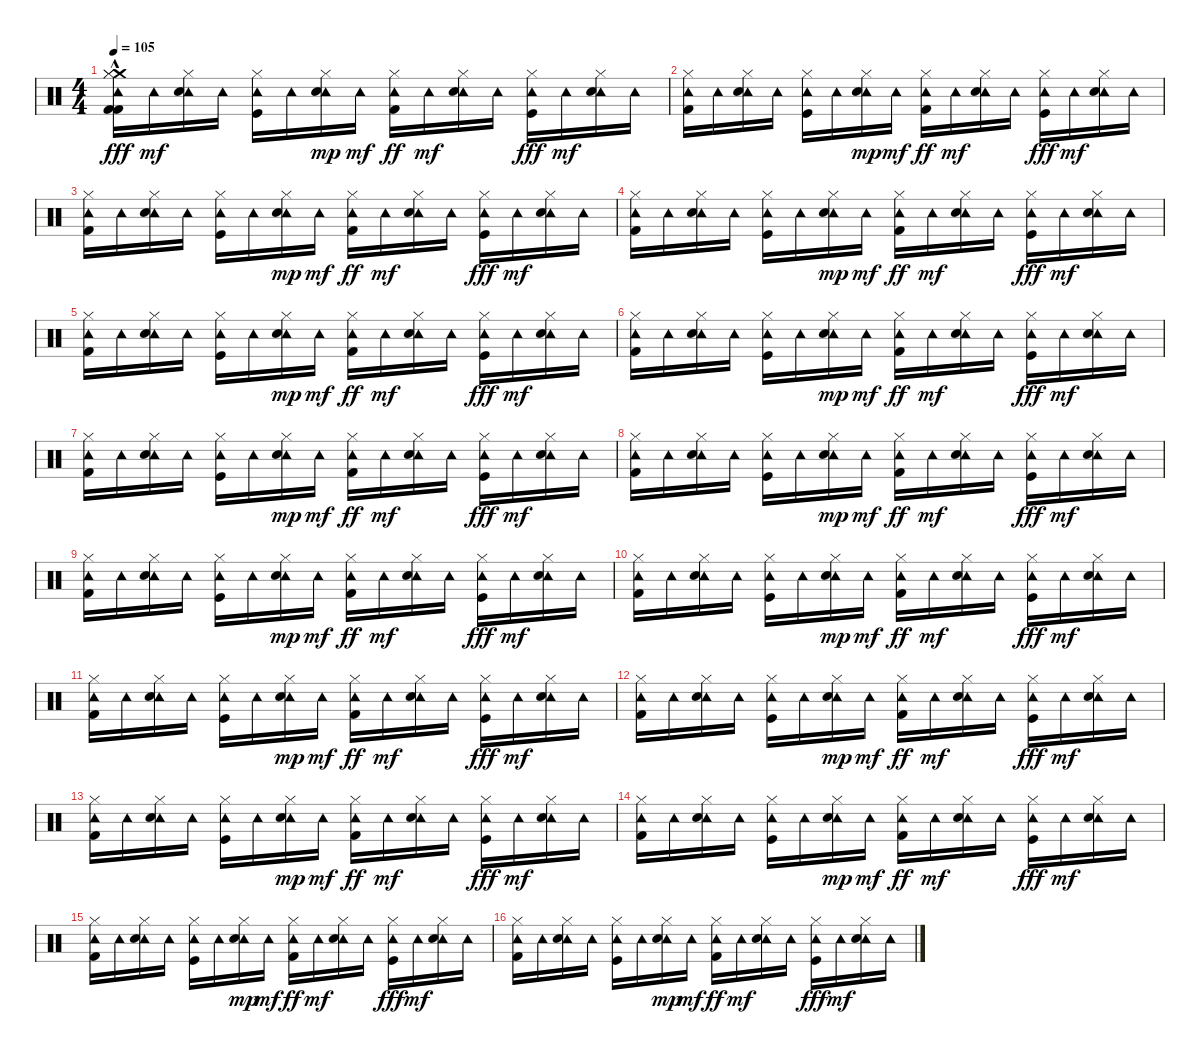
\track "" {instrument percussion}
\staff {score}
\articulation defaults
\ts (4 4)
\tempo 105
\clef neutral
\ks c
("Crash medium (hit)" "Kick (hit) 2" "Hi-Hat (closed)" "Tambourine (hit)" "Kick (hit) 2"{hac} "Hi-Hat (closed)").16{dy fff} "Tambourine (hit)".16{dy mf} ("Tambourine (hit)" "Hi-Hat (closed)" "Snare (hit) 2").16 "Tambourine (hit)".16 ("Kick (hit)" "Hi-Hat (closed)" "Tambourine (hit)").16 "Tambourine (hit)".16 ("Tambourine (hit)" "Hi-Hat (closed)" "Snare (hit) 2").16{dy mp} "Tambourine (hit)".16{dy mf} ("Tambourine (hit)" "Hi-Hat (closed)" "Kick (hit) 2").16{dy ff} "Tambourine (hit)".16{dy mf} ("Tambourine (hit)" "Hi-Hat (closed)" "Snare (hit) 2").16 "Tambourine (hit)".16 ("Tambourine (hit)" "Kick (hit)" "Hi-Hat (closed)").16{dy fff} "Tambourine (hit)".16{dy mf} ("Hi-Hat (closed)" "Tambourine (hit)" "Snare (hit) 2").16 "Tambourine (hit)".16 |
("Kick (hit) 2" "Hi-Hat (closed)" "Tambourine (hit)").16 "Tambourine (hit)".16 ("Hi-Hat (closed)" "Tambourine (hit)" "Snare (hit) 2").16 "Tambourine (hit)".16 ("Kick (hit)" "Hi-Hat (closed)" "Tambourine (hit)").16 "Tambourine (hit)".16 ("Tambourine (hit)" "Hi-Hat (closed)" "Snare (hit) 2").16{dy mp} "Tambourine (hit)".16{dy mf} ("Tambourine (hit)" "Hi-Hat (closed)" "Kick (hit) 2").16{dy ff} "Tambourine (hit)".16{dy mf} ("Tambourine (hit)" "Hi-Hat (closed)" "Snare (hit) 2").16 "Tambourine (hit)".16 ("Tambourine (hit)" "Kick (hit)" "Hi-Hat (closed)").16{dy fff} "Tambourine (hit)".16{dy mf} ("Tambourine (hit)" "Hi-Hat (closed)" "Snare (hit) 2").16 "Tambourine (hit)".16 |
("Kick (hit) 2" "Hi-Hat (closed)" "Tambourine (hit)").16 "Tambourine (hit)".16 ("Hi-Hat (closed)" "Tambourine (hit)" "Snare (hit) 2").16 "Tambourine (hit)".16 ("Kick (hit)" "Hi-Hat (closed)" "Tambourine (hit)").16 "Tambourine (hit)".16 ("Tambourine (hit)" "Hi-Hat (closed)" "Snare (hit) 2").16{dy mp} "Tambourine (hit)".16{dy mf} ("Tambourine (hit)" "Hi-Hat (closed)" "Kick (hit) 2").16{dy ff} "Tambourine (hit)".16{dy mf} ("Tambourine (hit)" "Hi-Hat (closed)" "Snare (hit) 2").16 "Tambourine (hit)".16 ("Tambourine (hit)" "Kick (hit)" "Hi-Hat (closed)").16{dy fff} "Tambourine (hit)".16{dy mf} ("Tambourine (hit)" "Hi-Hat (closed)" "Snare (hit) 2").16 "Tambourine (hit)".16 |
("Kick (hit) 2" "Hi-Hat (closed)" "Tambourine (hit)").16 "Tambourine (hit)".16 ("Hi-Hat (closed)" "Tambourine (hit)" "Snare (hit) 2").16 "Tambourine (hit)".16 ("Kick (hit)" "Hi-Hat (closed)" "Tambourine (hit)").16 "Tambourine (hit)".16 ("Tambourine (hit)" "Hi-Hat (closed)" "Snare (hit) 2").16{dy mp} "Tambourine (hit)".16{dy mf} ("Tambourine (hit)" "Hi-Hat (closed)" "Kick (hit) 2").16{dy ff} "Tambourine (hit)".16{dy mf} ("Tambourine (hit)" "Hi-Hat (closed)" "Snare (hit) 2").16 "Tambourine (hit)".16 ("Tambourine (hit)" "Kick (hit)" "Hi-Hat (closed)").16{dy fff} "Tambourine (hit)".16{dy mf} ("Tambourine (hit)" "Hi-Hat (closed)" "Snare (hit) 2").16 "Tambourine (hit)".16 |
("Kick (hit) 2" "Hi-Hat (closed)" "Tambourine (hit)").16 "Tambourine (hit)".16 ("Hi-Hat (closed)" "Tambourine (hit)" "Snare (hit) 2").16 "Tambourine (hit)".16 ("Kick (hit)" "Hi-Hat (closed)" "Tambourine (hit)").16 "Tambourine (hit)".16 ("Tambourine (hit)" "Hi-Hat (closed)" "Snare (hit) 2").16{dy mp} "Tambourine (hit)".16{dy mf} ("Tambourine (hit)" "Hi-Hat (closed)" "Kick (hit) 2").16{dy ff} "Tambourine (hit)".16{dy mf} ("Tambourine (hit)" "Hi-Hat (closed)" "Snare (hit) 2").16 "Tambourine (hit)".16 ("Tambourine (hit)" "Kick (hit)" "Hi-Hat (closed)").16{dy fff} "Tambourine (hit)".16{dy mf} ("Tambourine (hit)" "Hi-Hat (closed)" "Snare (hit) 2").16 "Tambourine (hit)".16 |
("Kick (hit) 2" "Hi-Hat (closed)" "Tambourine (hit)").16 "Tambourine (hit)".16 ("Hi-Hat (closed)" "Tambourine (hit)" "Snare (hit) 2").16 "Tambourine (hit)".16 ("Kick (hit)" "Hi-Hat (closed)" "Tambourine (hit)").16 "Tambourine (hit)".16 ("Tambourine (hit)" "Hi-Hat (closed)" "Snare (hit) 2").16{dy mp} "Tambourine (hit)".16{dy mf} ("Tambourine (hit)" "Hi-Hat (closed)" "Kick (hit) 2").16{dy ff} "Tambourine (hit)".16{dy mf} ("Tambourine (hit)" "Hi-Hat (closed)" "Snare (hit) 2").16 "Tambourine (hit)".16 ("Tambourine (hit)" "Kick (hit)" "Hi-Hat (closed)").16{dy fff} "Tambourine (hit)".16{dy mf} ("Tambourine (hit)" "Hi-Hat (closed)" "Snare (hit) 2").16 "Tambourine (hit)".16 |
("Kick (hit) 2" "Hi-Hat (closed)" "Tambourine (hit)").16 "Tambourine (hit)".16 ("Hi-Hat (closed)" "Tambourine (hit)" "Snare (hit) 2").16 "Tambourine (hit)".16 ("Kick (hit)" "Hi-Hat (closed)" "Tambourine (hit)").16 "Tambourine (hit)".16 ("Tambourine (hit)" "Hi-Hat (closed)" "Snare (hit) 2").16{dy mp} "Tambourine (hit)".16{dy mf} ("Tambourine (hit)" "Hi-Hat (closed)" "Kick (hit) 2").16{dy ff} "Tambourine (hit)".16{dy mf} ("Tambourine (hit)" "Hi-Hat (closed)" "Snare (hit) 2").16 "Tambourine (hit)".16 ("Tambourine (hit)" "Kick (hit)" "Hi-Hat (closed)").16{dy fff} "Tambourine (hit)".16{dy mf} ("Tambourine (hit)" "Hi-Hat (closed)" "Snare (hit) 2").16 "Tambourine (hit)".16 |
("Kick (hit) 2" "Hi-Hat (closed)" "Tambourine (hit)").16 "Tambourine (hit)".16 ("Hi-Hat (closed)" "Tambourine (hit)" "Snare (hit) 2").16 "Tambourine (hit)".16 ("Kick (hit)" "Hi-Hat (closed)" "Tambourine (hit)").16 "Tambourine (hit)".16 ("Tambourine (hit)" "Hi-Hat (closed)" "Snare (hit) 2").16{dy mp} "Tambourine (hit)".16{dy mf} ("Tambourine (hit)" "Hi-Hat (closed)" "Kick (hit) 2").16{dy ff} "Tambourine (hit)".16{dy mf} ("Tambourine (hit)" "Hi-Hat (closed)" "Snare (hit) 2").16 "Tambourine (hit)".16 ("Tambourine (hit)" "Kick (hit)" "Hi-Hat (closed)").16{dy fff} "Tambourine (hit)".16{dy mf} ("Tambourine (hit)" "Hi-Hat (closed)" "Snare (hit) 2").16 "Tambourine (hit)".16 |
("Kick (hit) 2" "Hi-Hat (closed)" "Tambourine (hit)").16 "Tambourine (hit)".16 ("Hi-Hat (closed)" "Tambourine (hit)" "Snare (hit) 2").16 "Tambourine (hit)".16 ("Kick (hit)" "Hi-Hat (closed)" "Tambourine (hit)").16 "Tambourine (hit)".16 ("Tambourine (hit)" "Hi-Hat (closed)" "Snare (hit) 2").16{dy mp} "Tambourine (hit)".16{dy mf} ("Tambourine (hit)" "Hi-Hat (closed)" "Kick (hit) 2").16{dy ff} "Tambourine (hit)".16{dy mf} ("Tambourine (hit)" "Hi-Hat (closed)" "Snare (hit) 2").16 "Tambourine (hit)".16 ("Tambourine (hit)" "Kick (hit)" "Hi-Hat (closed)").16{dy fff} "Tambourine (hit)".16{dy mf} ("Tambourine (hit)" "Hi-Hat (closed)" "Snare (hit) 2").16 "Tambourine (hit)".16 |
("Kick (hit) 2" "Hi-Hat (closed)" "Tambourine (hit)").16 "Tambourine (hit)".16 ("Hi-Hat (closed)" "Tambourine (hit)" "Snare (hit) 2").16 "Tambourine (hit)".16 ("Kick (hit)" "Hi-Hat (closed)" "Tambourine (hit)").16 "Tambourine (hit)".16 ("Tambourine (hit)" "Hi-Hat (closed)" "Snare (hit) 2").16{dy mp} "Tambourine (hit)".16{dy mf} ("Tambourine (hit)" "Hi-Hat (closed)" "Kick (hit) 2").16{dy ff} "Tambourine (hit)".16{dy mf} ("Tambourine (hit)" "Hi-Hat (closed)" "Snare (hit) 2").16 "Tambourine (hit)".16 ("Tambourine (hit)" "Kick (hit)" "Hi-Hat (closed)").16{dy fff} "Tambourine (hit)".16{dy mf} ("Tambourine (hit)" "Hi-Hat (closed)" "Snare (hit) 2").16 "Tambourine (hit)".16 |
("Kick (hit) 2" "Hi-Hat (closed)" "Tambourine (hit)").16 "Tambourine (hit)".16 ("Hi-Hat (closed)" "Tambourine (hit)" "Snare (hit) 2").16 "Tambourine (hit)".16 ("Kick (hit)" "Hi-Hat (closed)" "Tambourine (hit)").16 "Tambourine (hit)".16 ("Tambourine (hit)" "Hi-Hat (closed)" "Snare (hit) 2").16{dy mp} "Tambourine (hit)".16{dy mf} ("Tambourine (hit)" "Hi-Hat (closed)" "Kick (hit) 2").16{dy ff} "Tambourine (hit)".16{dy mf} ("Tambourine (hit)" "Hi-Hat (closed)" "Snare (hit) 2").16 "Tambourine (hit)".16 ("Tambourine (hit)" "Kick (hit)" "Hi-Hat (closed)").16{dy fff} "Tambourine (hit)".16{dy mf} ("Tambourine (hit)" "Hi-Hat (closed)" "Snare (hit) 2").16 "Tambourine (hit)".16 |
("Kick (hit) 2" "Hi-Hat (closed)" "Tambourine (hit)").16 "Tambourine (hit)".16 ("Hi-Hat (closed)" "Tambourine (hit)" "Snare (hit) 2").16 "Tambourine (hit)".16 ("Kick (hit)" "Hi-Hat (closed)" "Tambourine (hit)").16 "Tambourine (hit)".16 ("Tambourine (hit)" "Hi-Hat (closed)" "Snare (hit) 2").16{dy mp} "Tambourine (hit)".16{dy mf} ("Tambourine (hit)" "Hi-Hat (closed)" "Kick (hit) 2").16{dy ff} "Tambourine (hit)".16{dy mf} ("Tambourine (hit)" "Hi-Hat (closed)" "Snare (hit) 2").16 "Tambourine (hit)".16 ("Tambourine (hit)" "Kick (hit)" "Hi-Hat (closed)").16{dy fff} "Tambourine (hit)".16{dy mf} ("Tambourine (hit)" "Hi-Hat (closed)" "Snare (hit) 2").16 "Tambourine (hit)".16 |
("Kick (hit) 2" "Hi-Hat (closed)" "Tambourine (hit)").16 "Tambourine (hit)".16 ("Hi-Hat (closed)" "Tambourine (hit)" "Snare (hit) 2").16 "Tambourine (hit)".16 ("Kick (hit)" "Hi-Hat (closed)" "Tambourine (hit)").16 "Tambourine (hit)".16 ("Tambourine (hit)" "Hi-Hat (closed)" "Snare (hit) 2").16{dy mp} "Tambourine (hit)".16{dy mf} ("Tambourine (hit)" "Hi-Hat (closed)" "Kick (hit) 2").16{dy ff} "Tambourine (hit)".16{dy mf} ("Tambourine (hit)" "Hi-Hat (closed)" "Snare (hit) 2").16 "Tambourine (hit)".16 ("Tambourine (hit)" "Kick (hit)" "Hi-Hat (closed)").16{dy fff} "Tambourine (hit)".16{dy mf} ("Tambourine (hit)" "Hi-Hat (closed)" "Snare (hit) 2").16 "Tambourine (hit)".16 |
("Kick (hit) 2" "Hi-Hat (closed)" "Tambourine (hit)").16 "Tambourine (hit)".16 ("Hi-Hat (closed)" "Tambourine (hit)" "Snare (hit) 2").16 "Tambourine (hit)".16 ("Kick (hit)" "Hi-Hat (closed)" "Tambourine (hit)").16 "Tambourine (hit)".16 ("Tambourine (hit)" "Hi-Hat (closed)" "Snare (hit) 2").16{dy mp} "Tambourine (hit)".16{dy mf} ("Tambourine (hit)" "Hi-Hat (closed)" "Kick (hit) 2").16{dy ff} "Tambourine (hit)".16{dy mf} ("Tambourine (hit)" "Hi-Hat (closed)" "Snare (hit) 2").16 "Tambourine (hit)".16 ("Tambourine (hit)" "Kick (hit)" "Hi-Hat (closed)").16{dy fff} "Tambourine (hit)".16{dy mf} ("Tambourine (hit)" "Hi-Hat (closed)" "Snare (hit) 2").16 "Tambourine (hit)".16 |
("Kick (hit) 2" "Hi-Hat (closed)" "Tambourine (hit)").16 "Tambourine (hit)".16 ("Hi-Hat (closed)" "Tambourine (hit)" "Snare (hit) 2").16 "Tambourine (hit)".16 ("Kick (hit)" "Hi-Hat (closed)" "Tambourine (hit)").16 "Tambourine (hit)".16 ("Tambourine (hit)" "Hi-Hat (closed)" "Snare (hit) 2").16{dy mp} "Tambourine (hit)".16{dy mf} ("Tambourine (hit)" "Hi-Hat (closed)" "Kick (hit) 2").16{dy ff} "Tambourine (hit)".16{dy mf} ("Tambourine (hit)" "Hi-Hat (closed)" "Snare (hit) 2").16 "Tambourine (hit)".16 ("Tambourine (hit)" "Kick (hit)" "Hi-Hat (closed)").16{dy fff} "Tambourine (hit)".16{dy mf} ("Tambourine (hit)" "Hi-Hat (closed)" "Snare (hit) 2").16 "Tambourine (hit)".16 |
("Kick (hit) 2" "Hi-Hat (closed)" "Tambourine (hit)").16 "Tambourine (hit)".16 ("Hi-Hat (closed)" "Tambourine (hit)" "Snare (hit) 2").16 "Tambourine (hit)".16 ("Kick (hit)" "Hi-Hat (closed)" "Tambourine (hit)").16 "Tambourine (hit)".16 ("Tambourine (hit)" "Hi-Hat (closed)" "Snare (hit) 2").16{dy mp} "Tambourine (hit)".16{dy mf} ("Tambourine (hit)" "Hi-Hat (closed)" "Kick (hit) 2").16{dy ff} "Tambourine (hit)".16{dy mf} ("Tambourine (hit)" "Hi-Hat (closed)" "Snare (hit) 2").16 "Tambourine (hit)".16 ("Tambourine (hit)" "Kick (hit)" "Hi-Hat (closed)").16{dy fff} "Tambourine (hit)".16{dy mf} ("Tambourine (hit)" "Hi-Hat (closed)" "Snare (hit) 2").16 "Tambourine (hit)".16
